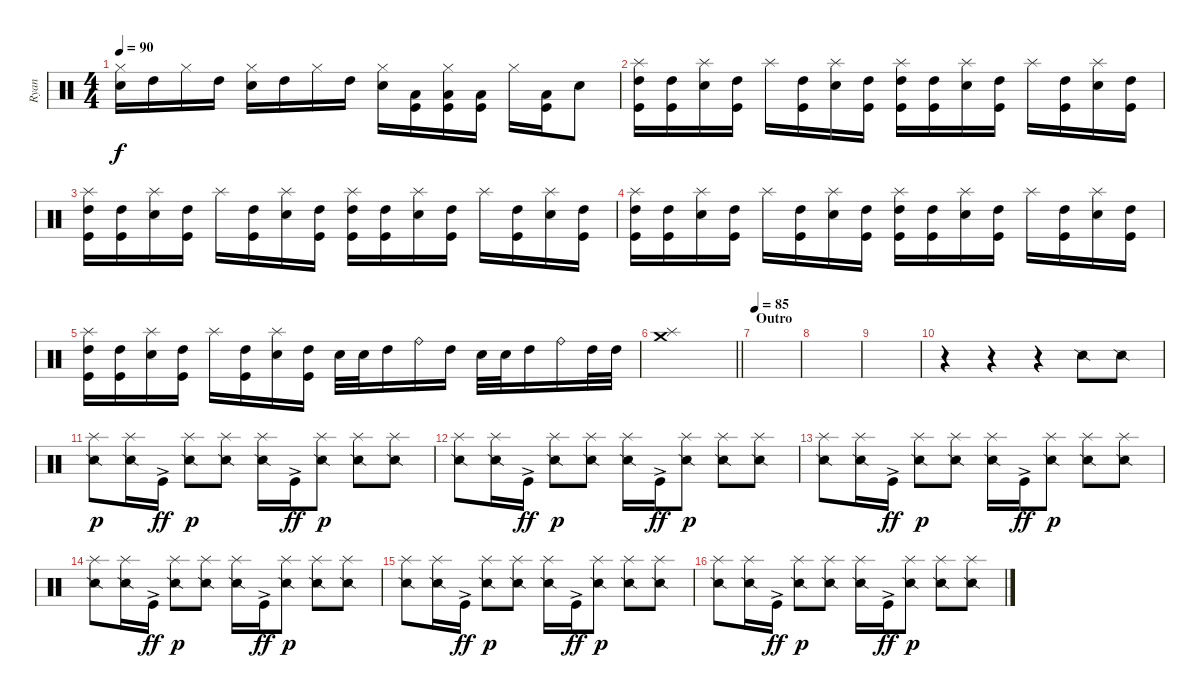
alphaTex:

\track ("Ryan" "Ryan") {instrument percussion}
\staff {score}
\articulation defaults
\ts (4 4)
\tempo 90
\clef neutral
\ks c
("Hi-Hat (closed)" "Snare (hit) 2").16{dy f} "High Tom (hit)".16 "Hi-Hat (closed)".16 "High Tom (hit)".16 ("Hi-Hat (closed)" "Snare (hit) 2").16 "High Tom (hit)".16 "Hi-Hat (closed)".16 "High Tom (hit)".16 ("Hi-Hat (closed)" "Snare (hit) 2").16 ("Kick (hit)" "Low Floor Tom (hit)").16 ("Hi-Hat (closed)" "Kick (hit)" "Low Floor Tom (hit)").16 ("Kick (hit)" "Low Floor Tom (hit)").16 "Hi-Hat (closed)".16 ("Kick (hit)" "Low Floor Tom (hit)").16 "Snare (hit) 2".8 |
("Splash (hit)" "Kick (hit)" "High Tom (hit)").16 ("Kick (hit)" "High Tom (hit)").16 ("Splash (hit)" "Snare (hit) 2").16 ("Kick (hit)" "High Tom (hit)").16 "Splash (hit)".16 ("Kick (hit)" "High Tom (hit)").16 ("Splash (hit)" "Snare (hit) 2").16 ("Kick (hit)" "High Tom (hit)").16 ("Splash (hit)" "Kick (hit)" "High Tom (hit)").16 ("Kick (hit)" "High Tom (hit)").16 ("Splash (hit)" "Snare (hit) 2").16 ("Kick (hit)" "High Tom (hit)").16 "Splash (hit)".16 ("Kick (hit)" "High Tom (hit)").16 ("Splash (hit)" "Snare (hit) 2").16 ("Kick (hit)" "High Tom (hit)").16 |
("Splash (hit)" "Kick (hit)" "High Tom (hit)").16 ("Kick (hit)" "High Tom (hit)").16 ("Splash (hit)" "Snare (hit) 2").16 ("Kick (hit)" "High Tom (hit)").16 "Splash (hit)".16 ("Kick (hit)" "High Tom (hit)").16 ("Splash (hit)" "Snare (hit) 2").16 ("Kick (hit)" "High Tom (hit)").16 ("Splash (hit)" "Kick (hit)" "High Tom (hit)").16 ("Kick (hit)" "High Tom (hit)").16 ("Splash (hit)" "Snare (hit) 2").16 ("Kick (hit)" "High Tom (hit)").16 "Splash (hit)".16 ("Kick (hit)" "High Tom (hit)").16 ("Splash (hit)" "Snare (hit) 2").16 ("Kick (hit)" "High Tom (hit)").16 |
("Splash (hit)" "Kick (hit)" "High Tom (hit)").16 ("Kick (hit)" "High Tom (hit)").16 ("Splash (hit)" "Snare (hit) 2").16 ("Kick (hit)" "High Tom (hit)").16 "Splash (hit)".16 ("Kick (hit)" "High Tom (hit)").16 ("Splash (hit)" "Snare (hit) 2").16 ("Kick (hit)" "High Tom (hit)").16 ("Splash (hit)" "Kick (hit)" "High Tom (hit)").16 ("Kick (hit)" "High Tom (hit)").16 ("Splash (hit)" "Snare (hit) 2").16 ("Kick (hit)" "High Tom (hit)").16 "Splash (hit)".16 ("Kick (hit)" "High Tom (hit)").16 ("Splash (hit)" "Snare (hit) 2").16 ("Kick (hit)" "High Tom (hit)").16 |
("Splash (hit)" "Kick (hit)" "High Tom (hit)").16 ("Kick (hit)" "High Tom (hit)").16 ("Splash (hit)" "Snare (hit) 2").16 ("Kick (hit)" "High Tom (hit)").16 "Splash (hit)".16 ("Kick (hit)" "High Tom (hit)").16 ("Splash (hit)" "Snare (hit) 2").16 ("Kick (hit)" "High Tom (hit)").16 "Snare (hit) 2".32 "Snare (hit) 2".32 "High Tom (hit)".16 "Ride (bell)".16 "High Tom (hit)".16 "Snare (hit) 2".32 "Snare (hit) 2".32 "High Tom (hit)".16 "Ride (bell)".16 "High Tom (hit)".32 "High Tom (hit)".32 |
\barLineRight lightlight
("Crash medium (hit)" "Splash (hit)").1 |
\section ("" "Outro ")
\tempo 85
|
|
|
r.4 r.4 r.4 "Snare (side stick) 2".8 "Snare (side stick) 2".8 |
("Splash (hit)" "Snare (side stick) 2").8{dy p} ("Splash (hit)" "Snare (side stick) 2").16 "Kick (hit)"{ac}.16{dy ff} ("Splash (hit)" "Snare (side stick) 2").8{dy p} ("Splash (hit)" "Snare (side stick) 2").8 ("Splash (hit)" "Snare (side stick) 2").16 "Kick (hit)"{ac}.16{dy ff} ("Splash (hit)" "Snare (side stick) 2").8{dy p} ("Splash (hit)" "Snare (side stick) 2").8 ("Splash (hit)" "Snare (side stick) 2").8 |
("Splash (hit)" "Snare (side stick) 2").8 ("Splash (hit)" "Snare (side stick) 2").16 "Kick (hit)"{ac}.16{dy ff} ("Splash (hit)" "Snare (side stick) 2").8{dy p} ("Splash (hit)" "Snare (side stick) 2").8 ("Splash (hit)" "Snare (side stick) 2").16 "Kick (hit)"{ac}.16{dy ff} ("Splash (hit)" "Snare (side stick) 2").8{dy p} ("Splash (hit)" "Snare (side stick) 2").8 ("Splash (hit)" "Snare (side stick) 2").8 |
("Splash (hit)" "Snare (side stick) 2").8 ("Splash (hit)" "Snare (side stick) 2").16 "Kick (hit)"{ac}.16{dy ff} ("Splash (hit)" "Snare (side stick) 2").8{dy p} ("Splash (hit)" "Snare (side stick) 2").8 ("Splash (hit)" "Snare (side stick) 2").16 "Kick (hit)"{ac}.16{dy ff} ("Splash (hit)" "Snare (side stick) 2").8{dy p} ("Splash (hit)" "Snare (side stick) 2").8 ("Splash (hit)" "Snare (side stick) 2").8 |
("Splash (hit)" "Snare (side stick) 2").8 ("Splash (hit)" "Snare (side stick) 2").16 "Kick (hit)"{ac}.16{dy ff} ("Splash (hit)" "Snare (side stick) 2").8{dy p} ("Splash (hit)" "Snare (side stick) 2").8 ("Splash (hit)" "Snare (side stick) 2").16 "Kick (hit)"{ac}.16{dy ff} ("Splash (hit)" "Snare (side stick) 2").8{dy p} ("Splash (hit)" "Snare (side stick) 2").8 ("Splash (hit)" "Snare (side stick) 2").8 |
("Splash (hit)" "Snare (side stick) 2").8 ("Splash (hit)" "Snare (side stick) 2").16 "Kick (hit)"{ac}.16{dy ff} ("Splash (hit)" "Snare (side stick) 2").8{dy p} ("Splash (hit)" "Snare (side stick) 2").8 ("Splash (hit)" "Snare (side stick) 2").16 "Kick (hit)"{ac}.16{dy ff} ("Splash (hit)" "Snare (side stick) 2").8{dy p} ("Splash (hit)" "Snare (side stick) 2").8 ("Splash (hit)" "Snare (side stick) 2").8 |
("Splash (hit)" "Snare (side stick) 2").8 ("Splash (hit)" "Snare (side stick) 2").16 "Kick (hit)"{ac}.16{dy ff} ("Splash (hit)" "Snare (side stick) 2").8{dy p} ("Splash (hit)" "Snare (side stick) 2").8 ("Splash (hit)" "Snare (side stick) 2").16 "Kick (hit)"{ac}.16{dy ff} ("Splash (hit)" "Snare (side stick) 2").8{dy p} ("Splash (hit)" "Snare (side stick) 2").8 ("Splash (hit)" "Snare (side stick) 2").8
